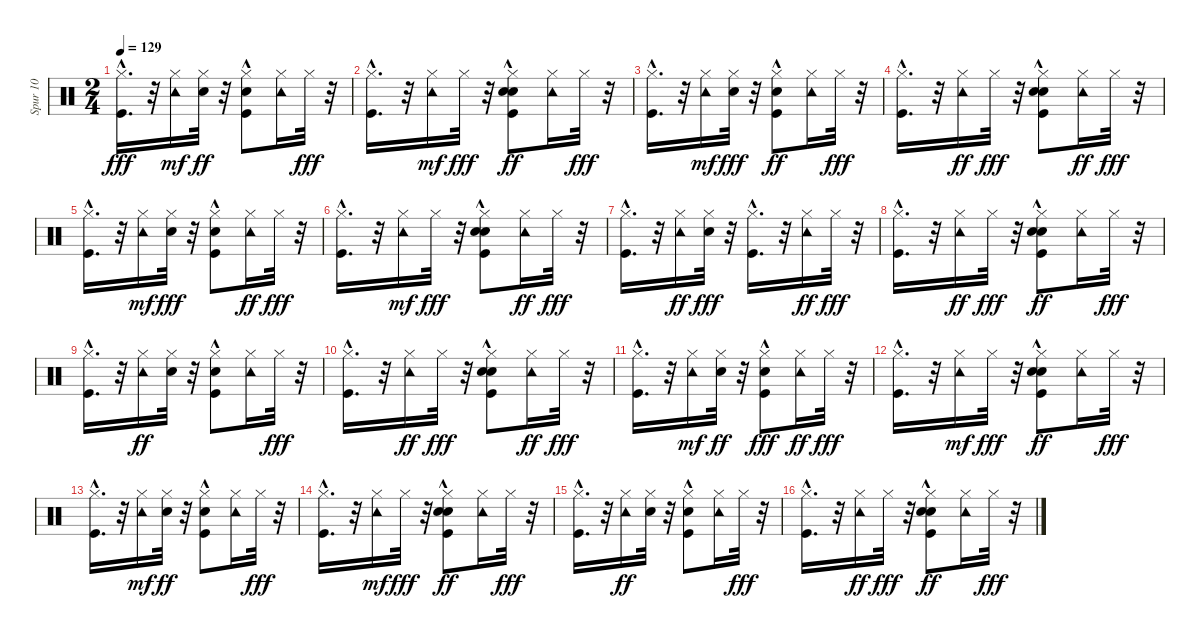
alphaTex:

\track ("Spur 10" "Spur 10") {instrument percussion}
\staff {score}
\articulation defaults
\ts (2 4)
\tempo 129
\clef neutral
\ks c
("Hi-Hat (closed)" "Kick (hit)"{hac}).16{d dy fff} r.32 ("Hi-Hat (closed)" "Tambourine (hit)").16{dy mf} ("Hi-Hat (closed)" "Snare (hit) 2").32{dy ff} r.32 ("Hi-Hat (closed)" "Kick (hit)"{hac} "Hand Clap (hit)").8 ("Hi-Hat (closed)" "Tambourine (hit)").16 "Hi-Hat (closed)".32{dy fff} r.32 |
("Hi-Hat (closed)" "Kick (hit)"{hac}).16{d} r.32 ("Hi-Hat (closed)" "Tambourine (hit)").16{dy mf} "Hi-Hat (closed)".32{dy fff} r.32 ("Snare (hit) 2" "Kick (hit)"{hac} "Hand Clap (hit)" "Hi-Hat (closed)").8{dy ff} ("Tambourine (hit)" "Hi-Hat (closed)").16 "Hi-Hat (closed)".32{dy fff} r.32 |
("Hi-Hat (closed)" "Kick (hit)"{hac}).16{d} r.32 ("Hi-Hat (closed)" "Tambourine (hit)").16{dy mf} ("Snare (hit) 2" "Hi-Hat (closed)").32{dy fff} r.32 ("Kick (hit)"{hac} "Hand Clap (hit)" "Hi-Hat (closed)").8{dy ff} ("Hi-Hat (closed)" "Tambourine (hit)").16 "Hi-Hat (closed)".32{dy fff} r.32 |
("Hi-Hat (closed)" "Kick (hit)"{hac}).16{d} r.32 ("Tambourine (hit)" "Hi-Hat (closed)").16{dy ff} "Hi-Hat (closed)".32{dy fff} r.32 ("Snare (hit) 2" "Hand Clap (hit)" "Kick (hit)"{hac} "Hi-Hat (closed)").8 ("Hi-Hat (closed)" "Tambourine (hit)").16{dy ff} "Hi-Hat (closed)".32{dy fff} r.32 |
("Hi-Hat (closed)" "Kick (hit)"{hac}).16{d} r.32 ("Hi-Hat (closed)" "Tambourine (hit)").16{dy mf} ("Snare (hit) 2" "Hi-Hat (closed)").32{dy fff} r.32 ("Hi-Hat (closed)" "Hand Clap (hit)" "Kick (hit)"{hac}).8 ("Tambourine (hit)" "Hi-Hat (closed)").16{dy ff} "Hi-Hat (closed)".32{dy fff} r.32 |
("Hi-Hat (closed)" "Kick (hit)"{hac}).16{d} r.32 ("Hi-Hat (closed)" "Tambourine (hit)").16{dy mf} "Hi-Hat (closed)".32{dy fff} r.32 ("Hand Clap (hit)"{hac} "Hi-Hat (closed)" "Snare (hit) 2" "Kick (hit)"{hac}).8 ("Tambourine (hit)" "Hi-Hat (closed)").16{dy ff} "Hi-Hat (closed)".32{dy fff} r.32 |
("Kick (hit)"{hac} "Hi-Hat (closed)").16{d} r.32 ("Tambourine (hit)" "Hi-Hat (closed)").16{dy ff} ("Snare (hit) 2" "Hi-Hat (closed)").32{dy fff} r.32 ("Kick (hit)"{hac} "Hi-Hat (closed)").16{d} r.32 ("Hi-Hat (closed)" "Tambourine (hit)").16{dy ff} "Hi-Hat (closed)".32{dy fff} r.32 |
("Hi-Hat (closed)" "Kick (hit)"{hac}).16{d} r.32 ("Tambourine (hit)" "Hi-Hat (closed)").16{dy ff} "Hi-Hat (closed)".32{dy fff} r.32 ("Hi-Hat (closed)" "Hand Clap (hit)" "Kick (hit)"{hac} "Snare (hit) 2").8{dy ff} ("Tambourine (hit)" "Hi-Hat (closed)").16 "Hi-Hat (closed)".32{dy fff} r.32 |
("Hi-Hat (closed)" "Kick (hit)"{hac}).16{d} r.32 ("Tambourine (hit)" "Hi-Hat (closed)").16{dy ff} ("Hi-Hat (closed)" "Snare (hit) 2").32 r.32 ("Kick (hit)"{hac} "Hand Clap (hit)" "Hi-Hat (closed)").8 ("Hi-Hat (closed)" "Tambourine (hit)").16 "Hi-Hat (closed)".32{dy fff} r.32 |
("Kick (hit)"{hac} "Hi-Hat (closed)").16{d} r.32 ("Tambourine (hit)" "Hi-Hat (closed)").16{dy ff} "Hi-Hat (closed)".32{dy fff} r.32 ("Snare (hit) 2" "Hand Clap (hit)" "Hi-Hat (closed)" "Kick (hit)"{hac}).8 ("Tambourine (hit)" "Hi-Hat (closed)").16{dy ff} "Hi-Hat (closed)".32{dy fff} r.32 |
("Hi-Hat (closed)" "Kick (hit)"{hac}).16{d} r.32 ("Hi-Hat (closed)" "Tambourine (hit)").16{dy mf} ("Hi-Hat (closed)" "Snare (hit) 2").32{dy ff} r.32 ("Hi-Hat (closed)" "Hand Clap (hit)" "Kick (hit)"{hac}).8{dy fff} ("Tambourine (hit)" "Hi-Hat (closed)").16{dy ff} "Hi-Hat (closed)".32{dy fff} r.32 |
("Kick (hit)"{hac} "Hi-Hat (closed)").16{d} r.32 ("Hi-Hat (closed)" "Tambourine (hit)").16{dy mf} "Hi-Hat (closed)".32{dy fff} r.32 ("Kick (hit)"{hac} "Hand Clap (hit)" "Snare (hit) 2" "Hi-Hat (closed)").8{dy ff} ("Hi-Hat (closed)" "Tambourine (hit)").16 "Hi-Hat (closed)".32{dy fff} r.32 |
("Kick (hit)"{hac} "Hi-Hat (closed)").16{d} r.32 ("Hi-Hat (closed)" "Tambourine (hit)").16{dy mf} ("Hi-Hat (closed)" "Snare (hit) 2").32{dy ff} r.32 ("Hi-Hat (closed)" "Kick (hit)"{hac} "Hand Clap (hit)").8 ("Hi-Hat (closed)" "Tambourine (hit)").16 "Hi-Hat (closed)".32{dy fff} r.32 |
("Kick (hit)"{hac} "Hi-Hat (closed)").16{d} r.32 ("Hi-Hat (closed)" "Tambourine (hit)").16{dy mf} "Hi-Hat (closed)".32{dy fff} r.32 ("Kick (hit)"{hac} "Hi-Hat (closed)" "Snare (hit) 2" "Hand Clap (hit)").8{dy ff} ("Tambourine (hit)" "Hi-Hat (closed)").16 "Hi-Hat (closed)".32{dy fff} r.32 |
("Hi-Hat (closed)" "Kick (hit)"{hac}).16{d} r.32 ("Tambourine (hit)" "Hi-Hat (closed)").16{dy ff} ("Hi-Hat (closed)" "Snare (hit) 2").32 r.32 ("Kick (hit)"{hac} "Hand Clap (hit)" "Hi-Hat (closed)").8 ("Tambourine (hit)" "Hi-Hat (closed)").16 "Hi-Hat (closed)".32{dy fff} r.32 |
("Hi-Hat (closed)" "Kick (hit)"{hac}).16{d} r.32 ("Tambourine (hit)" "Hi-Hat (closed)").16{dy ff} "Hi-Hat (closed)".32{dy fff} r.32 ("Kick (hit)"{hac} "Hand Clap (hit)" "Hi-Hat (closed)" "Snare (hit) 2").8{dy ff} ("Hi-Hat (closed)" "Tambourine (hit)").16 "Hi-Hat (closed)".32{dy fff} r.32
